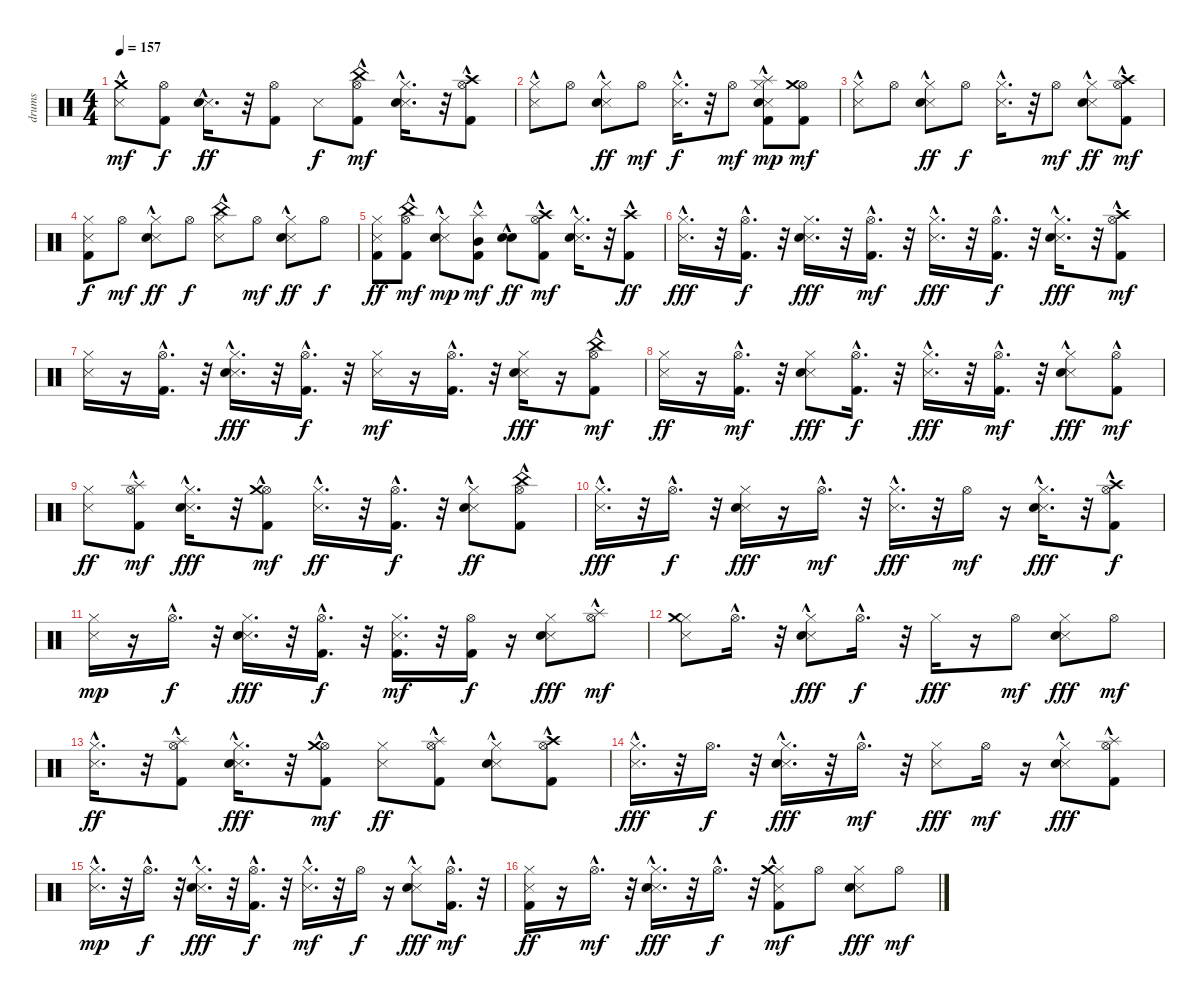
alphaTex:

\track ("drums   " "drums   ") {instrument percussion}
\staff {score}
\articulation defaults
\ts (4 4)
\tempo 157
\clef neutral
\ks c
("Snare (side stick) 3"{hac} "Crash medium (hit)"{hac}).8{dy mf} ("Kick (hit) 2" "Hi-Hat (open)").8{dy f} ("Snare (side stick) 3"{hac} "Hand Clap (hit)").16{d dy ff} r.32 ("Kick (hit) 2" "Hi-Hat (open)").8 "Snare (side stick) 3".8{dy f} ("Kick (hit) 2" "Hi-Hat (open)"{hac} "China (hit)"{hac}).8{dy mf} ("Snare (side stick) 3"{hac} "Hand Clap (hit)" "Hi-Hat (closed)").16{d} r.32 ("Kick (hit) 2" "Hi-Hat (open)"{hac} "Crash high (hit)").8 |
("Snare (side stick) 3" "Hi-Hat (closed)"{hac}).8 "Hi-Hat (open)".8 ("Snare (side stick) 3"{hac} "Hand Clap (hit)"{hac} "Hi-Hat (closed)").8{dy ff} "Hi-Hat (open)".8{dy mf} ("Snare (side stick) 3"{hac} "Hi-Hat (closed)"{hac}).16{d dy f} r.32 "Hi-Hat (open)".8{dy mf} ("Kick (hit) 2"{hac} "Snare (side stick) 3"{hac} "Hand Clap (hit)" "Hi-Hat (closed)" "Splash (hit)").8{dy mp} ("Kick (hit) 2" "Hi-Hat (open)" "Crash medium (hit)").8{dy mf} |
("Snare (side stick) 3"{hac} "Hi-Hat (closed)").8 "Hi-Hat (open)".8 ("Snare (side stick) 3"{hac} "Hand Clap (hit)" "Hi-Hat (closed)").8{dy ff} "Hi-Hat (open)".8{dy f} ("Snare (side stick) 3" "Hi-Hat (closed)"{hac}).16{d} r.32 "Hi-Hat (open)".8{dy mf} ("Snare (side stick) 3"{hac} "Hand Clap (hit)"{hac} "Hi-Hat (closed)").8{dy ff} ("Kick (hit) 2"{hac} "Hi-Hat (open)" "Crash high (hit)").8{dy mf} |
("Kick (hit) 2" "Snare (side stick) 3" "Hi-Hat (closed)").8{dy f} "Hi-Hat (open)".8{dy mf} ("Snare (side stick) 3"{hac} "Hand Clap (hit)"{hac} "Hi-Hat (closed)").8{dy ff} "Hi-Hat (open)".8{dy f} ("Snare (side stick) 3" "Hi-Hat (closed)"{hac} "China (hit)"{hac}).8 "Hi-Hat (open)".8{dy mf} ("Snare (side stick) 3" "Hand Clap (hit)"{hac} "Hi-Hat (closed)").8{dy ff} "Hi-Hat (open)".8{dy f} |
("Kick (hit) 2" "Snare (side stick) 3" "Hi-Hat (closed)").8{dy ff} ("Kick (hit) 2" "Hi-Hat (open)" "China (hit)"{hac}).8{dy mf} ("Snare (side stick) 3"{hac} "Hand Clap (hit)" "Hi-Hat (closed)").8{dy mp} ("Kick (hit) 2"{hac} "Mid Tom (hit)"{hac} "Splash (hit)"{hac}).8{dy mf} ("Snare (hit) 2" "Snare (hit) 2"{hac}).8{dy ff} ("Kick (hit) 2"{hac} "Hi-Hat (open)" "Crash high (hit)"{hac}).8{dy mf} ("Snare (side stick) 3" "Hand Clap (hit)"{hac} "Hi-Hat (closed)"{hac}).16{d} r.32 ("Kick (hit) 2"{hac} "Crash high (hit)"{hac}).8{dy ff} |
("Snare (side stick) 3"{hac} "Hi-Hat (closed)").16{d dy fff} r.32 ("Kick (hit) 2"{hac} "Hi-Hat (open)"{hac}).16{d dy f} r.32 ("Snare (side stick) 3" "Hand Clap (hit)" "Hi-Hat (closed)").16{d dy fff} r.32 ("Kick (hit) 2"{hac} "Hi-Hat (open)"{hac}).16{d dy mf} r.32 ("Snare (side stick) 3"{hac} "Hi-Hat (closed)").16{d dy fff} r.32 ("Kick (hit) 2"{hac} "Hi-Hat (open)"{hac}).16{d dy f} r.32 ("Snare (side stick) 3"{hac} "Hand Clap (hit)" "Hi-Hat (closed)").16{d dy fff} r.32 ("Kick (hit) 2"{hac} "Hi-Hat (open)"{hac} "Crash high (hit)").8{dy mf} |
("Snare (side stick) 3" "Hi-Hat (closed)").16 r.16 ("Kick (hit) 2"{hac} "Hi-Hat (open)"{hac}).16{d} r.32 ("Snare (side stick) 3" "Hand Clap (hit)"{hac} "Hi-Hat (closed)").16{d dy fff} r.32 ("Kick (hit) 2"{hac} "Hi-Hat (open)"{hac}).16{d dy f} r.32 ("Snare (side stick) 3" "Hi-Hat (closed)").16{dy mf} r.16 ("Kick (hit) 2"{hac} "Hi-Hat (open)"{hac}).16{d} r.32 ("Snare (side stick) 3" "Hand Clap (hit)" "Hi-Hat (closed)").16{dy fff} r.16 ("Kick (hit) 2"{hac} "Hi-Hat (open)"{hac} "China (hit)").8{dy mf} |
("Snare (side stick) 3" "Hi-Hat (closed)").16{dy ff} r.16 ("Kick (hit) 2"{hac} "Hi-Hat (open)"{hac}).16{d dy mf} r.32 ("Snare (side stick) 3" "Hand Clap (hit)" "Hi-Hat (closed)").8{dy fff} ("Kick (hit) 2"{hac} "Hi-Hat (open)"{hac}).16{d dy f} r.32 ("Snare (side stick) 3"{hac} "Hi-Hat (closed)").16{d dy fff} r.32 ("Kick (hit) 2"{hac} "Hi-Hat (open)").16{d dy mf} r.32 ("Snare (side stick) 3" "Hand Clap (hit)"{hac} "Hi-Hat (closed)").8{dy fff} ("Kick (hit) 2"{hac} "Hi-Hat (open)").8{dy mf} |
("Snare (side stick) 3" "Hi-Hat (closed)").8{dy ff} ("Kick (hit) 2" "Hi-Hat (open)"{hac} "Splash (hit)").8{dy mf} ("Snare (side stick) 3"{hac} "Hand Clap (hit)"{hac} "Hi-Hat (closed)").16{d dy fff} r.32 ("Kick (hit) 2" "Hi-Hat (open)"{hac} "Crash medium (hit)").8{dy mf} ("Snare (side stick) 3"{hac} "Hi-Hat (closed)").16{d dy ff} r.32 ("Kick (hit) 2" "Hi-Hat (open)"{hac}).16{d dy f} r.32 ("Snare (side stick) 3" "Hand Clap (hit)"{hac} "Hi-Hat (closed)").8{dy ff} ("Kick (hit) 2"{hac} "Hi-Hat (open)" "China (hit)").8 |
("Snare (side stick) 3"{hac} "Hi-Hat (closed)").16{d dy fff} r.32 "Hi-Hat (open)"{hac}.16{d dy f} r.32 ("Snare (side stick) 3" "Hand Clap (hit)" "Hi-Hat (closed)").16{dy fff} r.16 "Hi-Hat (open)"{hac}.16{d dy mf} r.32 ("Snare (side stick) 3"{hac} "Hi-Hat (closed)").16{d dy fff} r.32 "Hi-Hat (open)".16{dy mf} r.16 ("Snare (side stick) 3"{hac} "Hand Clap (hit)"{hac} "Hi-Hat (closed)").16{d dy fff} r.32 ("Kick (hit) 2" "Hi-Hat (open)"{hac} "Crash high (hit)"{hac}).8{dy f} |
("Snare (side stick) 3" "Hi-Hat (closed)").16{dy mp} r.16 "Hi-Hat (open)"{hac}.16{d dy f} r.32 ("Snare (side stick) 3" "Hand Clap (hit)" "Hi-Hat (closed)").16{d dy fff} r.32 ("Kick (hit) 2" "Hi-Hat (open)"{hac}).16{d dy f} r.32 ("Kick (hit) 2" "Snare (side stick) 3" "Hi-Hat (closed)").16{d dy mf} r.32 ("Kick (hit) 2" "Hi-Hat (open)").16{dy f} r.16 ("Snare (side stick) 3" "Hand Clap (hit)" "Hi-Hat (closed)").8{dy fff} ("Hi-Hat (open)"{hac} "Splash (hit)").8{dy mf} |
("Snare (side stick) 3" "Hi-Hat (closed)" "Crash medium (hit)").8 "Hi-Hat (open)"{hac}.16{d} r.32 ("Snare (side stick) 3" "Hand Clap (hit)"{hac} "Hi-Hat (closed)").8{dy fff} "Hi-Hat (open)"{hac}.16{d dy f} r.32 "Hi-Hat (closed)".16{dy fff} r.16 "Hi-Hat (open)".8{dy mf} ("Snare (side stick) 3" "Hand Clap (hit)" "Hi-Hat (closed)").8{dy fff} "Hi-Hat (open)".8{dy mf} |
("Snare (side stick) 3"{hac} "Hi-Hat (closed)").16{d dy ff} r.32 ("Kick (hit) 2"{hac} "Hi-Hat (open)"{hac} "Splash (hit)"{hac}).8 ("Snare (side stick) 3"{hac} "Hand Clap (hit)" "Hi-Hat (closed)").16{d dy fff} r.32 ("Kick (hit) 2" "Hi-Hat (open)"{hac} "Crash medium (hit)"{hac}).8{dy mf} ("Snare (side stick) 3" "Hi-Hat (closed)").8{dy ff} ("Kick (hit) 2" "Hi-Hat (open)" "Splash (hit)"{hac}).8 ("Snare (side stick) 3" "Hand Clap (hit)"{hac} "Hi-Hat (closed)").8 ("Kick (hit) 2" "Hi-Hat (open)" "Crash high (hit)"{hac}).8 |
("Snare (side stick) 3"{hac} "Hi-Hat (closed)").16{d dy fff} r.32 "Hi-Hat (open)".16{d dy f} r.32 ("Snare (side stick) 3"{hac} "Hand Clap (hit)"{hac} "Hi-Hat (closed)").16{d dy fff} r.32 "Hi-Hat (open)"{hac}.16{d dy mf} r.32 ("Snare (side stick) 3" "Hi-Hat (closed)").8{dy fff} "Hi-Hat (open)".16{dy mf} r.16 ("Snare (side stick) 3" "Hand Clap (hit)"{hac} "Hi-Hat (closed)").8{dy fff} ("Kick (hit) 2" "Hi-Hat (open)" "Splash (hit)"{hac}).8 |
("Snare (side stick) 3"{hac} "Hi-Hat (closed)").16{d dy mp} r.32 "Hi-Hat (open)"{hac}.16{d dy f} r.32 ("Snare (side stick) 3"{hac} "Hand Clap (hit)" "Hi-Hat (closed)").16{d dy fff} r.32 ("Kick (hit) 2" "Hi-Hat (open)"{hac}).16{d dy f} r.32 ("Snare (side stick) 3"{hac} "Hi-Hat (closed)").16{d dy mf} r.32 "Hi-Hat (open)".16{dy f} r.16 ("Snare (side stick) 3" "Hand Clap (hit)"{hac} "Hi-Hat (closed)").8{dy fff} ("Kick (hit) 2" "Hi-Hat (open)"{hac}).16{d dy mf} r.32 |
("Kick (hit) 2" "Snare (side stick) 3" "Hi-Hat (closed)").16{dy ff} r.16 "Hi-Hat (open)"{hac}.16{d dy mf} r.32 ("Snare (side stick) 3"{hac} "Hand Clap (hit)" "Hi-Hat (closed)").16{d dy fff} r.32 "Hi-Hat (open)"{hac}.16{d dy f} r.32 ("Kick (hit) 2" "Snare (side stick) 3"{hac} "Hi-Hat (closed)" "Crash medium (hit)").8{dy mf} "Hi-Hat (open)".8 ("Snare (side stick) 3" "Hand Clap (hit)" "Hi-Hat (closed)").8{dy fff} "Hi-Hat (open)".8{dy mf}
